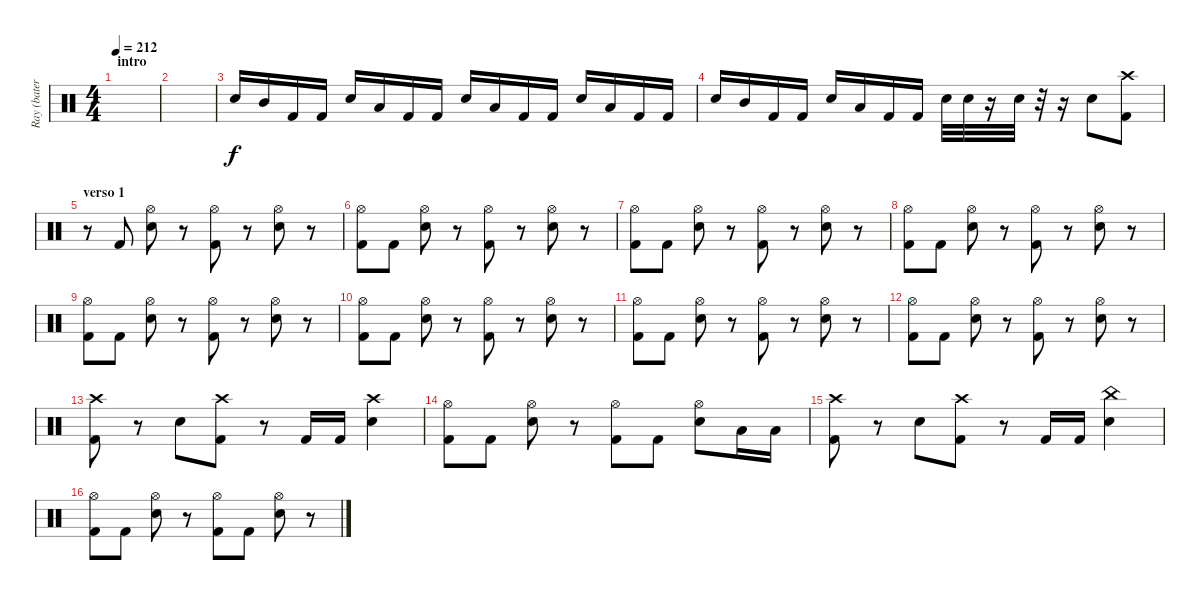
\track ("Ray (batería)" "Ray (bater") {instrument percussion}
\staff {score}
\articulation defaults
\ts (4 4)
\section ("" "intro")
\tempo 212
\clef neutral
\ks c
|
|
"Snare (hit) 2".16 "Mid Tom (hit)".16 "Kick (hit) 2".16 "Kick (hit) 2".16 "Snare (hit) 2".16 "Low Tom (hit)".16 "Kick (hit) 2".16 "Kick (hit) 2".16 "Snare (hit) 2".16 "Low Tom (hit)".16 "Kick (hit) 2".16 "Kick (hit) 2".16 "Snare (hit) 2".16 "Low Tom (hit)".16 "Kick (hit) 2".16 "Kick (hit) 2".16 |
"Snare (hit) 2".16 "Mid Tom (hit)".16 "Kick (hit) 2".16 "Kick (hit) 2".16 "Snare (hit) 2".16 "Low Tom (hit)".16 "Kick (hit) 2".16 "Kick (hit) 2".16 "Snare (hit) 2".32 "Snare (hit) 2".32 r.16 "Snare (hit) 2".32 r.32 r.16 "Snare (hit) 2".8 ("Crash high (hit)" "Kick (hit) 2").8 |
\section ("" "verso 1")
r.8 "Kick (hit) 2".8 ("Hi-Hat (open)" "Snare (hit) 2").8 r.8 ("Hi-Hat (open)" "Kick (hit) 2").8 r.8 ("Hi-Hat (open)" "Snare (hit) 2").8 r.8 |
("Hi-Hat (open)" "Kick (hit) 2").8 "Kick (hit) 2".8 ("Hi-Hat (open)" "Snare (hit) 2").8 r.8 ("Hi-Hat (open)" "Kick (hit) 2").8 r.8 ("Hi-Hat (open)" "Snare (hit) 2").8 r.8 |
("Hi-Hat (open)" "Kick (hit) 2").8 "Kick (hit) 2".8 ("Hi-Hat (open)" "Snare (hit) 2").8 r.8 ("Hi-Hat (open)" "Kick (hit) 2").8 r.8 ("Hi-Hat (open)" "Snare (hit) 2").8 r.8 |
("Hi-Hat (open)" "Kick (hit) 2").8 "Kick (hit) 2".8 ("Hi-Hat (open)" "Snare (hit) 2").8 r.8 ("Hi-Hat (open)" "Kick (hit) 2").8 r.8 ("Hi-Hat (open)" "Snare (hit) 2").8 r.8 |
("Hi-Hat (open)" "Kick (hit) 2").8 "Kick (hit) 2".8 ("Hi-Hat (open)" "Snare (hit) 2").8 r.8 ("Hi-Hat (open)" "Kick (hit) 2").8 r.8 ("Hi-Hat (open)" "Snare (hit) 2").8 r.8 |
("Hi-Hat (open)" "Kick (hit) 2").8 "Kick (hit) 2".8 ("Hi-Hat (open)" "Snare (hit) 2").8 r.8 ("Hi-Hat (open)" "Kick (hit) 2").8 r.8 ("Hi-Hat (open)" "Snare (hit) 2").8 r.8 |
("Hi-Hat (open)" "Kick (hit) 2").8 "Kick (hit) 2".8 ("Hi-Hat (open)" "Snare (hit) 2").8 r.8 ("Hi-Hat (open)" "Kick (hit) 2").8 r.8 ("Hi-Hat (open)" "Snare (hit) 2").8 r.8 |
("Hi-Hat (open)" "Kick (hit) 2").8 "Kick (hit) 2".8 ("Hi-Hat (open)" "Snare (hit) 2").8 r.8 ("Hi-Hat (open)" "Kick (hit) 2").8 r.8 ("Hi-Hat (open)" "Snare (hit) 2").8 r.8 |
("Crash high (hit)" "Kick (hit) 2").8 r.8 "Snare (hit) 2".8 ("Crash high (hit)" "Kick (hit) 2").8 r.8 "Kick (hit) 2".16 "Kick (hit) 2".16 ("Crash high (hit)" "Snare (hit) 2").4 |
("Hi-Hat (open)" "Kick (hit) 2").8 "Kick (hit) 2".8 ("Hi-Hat (open)" "Snare (hit) 2").8 r.8 ("Hi-Hat (open)" "Kick (hit) 2").8 "Kick (hit) 2".8 ("Hi-Hat (open)" "Snare (hit) 2").8 "Low Tom (hit)".16 "Low Tom (hit)".16 |
("Crash high (hit)" "Kick (hit) 2").8 r.8 "Snare (hit) 2".8 ("Crash high (hit)" "Kick (hit) 2").8 r.8 "Kick (hit) 2".16 "Kick (hit) 2".16 ("China (hit)" "Snare (hit) 2").4 |
("Hi-Hat (open)" "Kick (hit) 2").8 "Kick (hit) 2".8 ("Hi-Hat (open)" "Snare (hit) 2").8 r.8 ("Hi-Hat (open)" "Kick (hit) 2").8 "Kick (hit) 2".8 ("Hi-Hat (open)" "Snare (hit) 2").8 r.8
